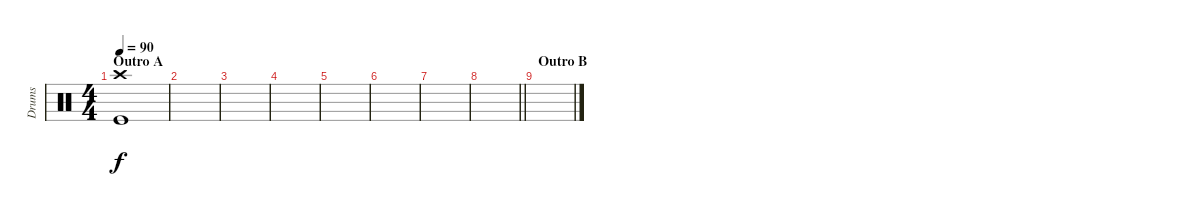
\track ("Drums" "Drums") {instrument percussion}
\staff {score}
\articulation defaults
\ts (4 4)
\section ("" "Outro A")
\tempo 90
\clef neutral
\ks c
("Crash high (hit)" "Kick (hit)").1{dy f} |
|
|
|
|
|
|
\barLineRight lightlight
|
\section ("" "Outro B")
